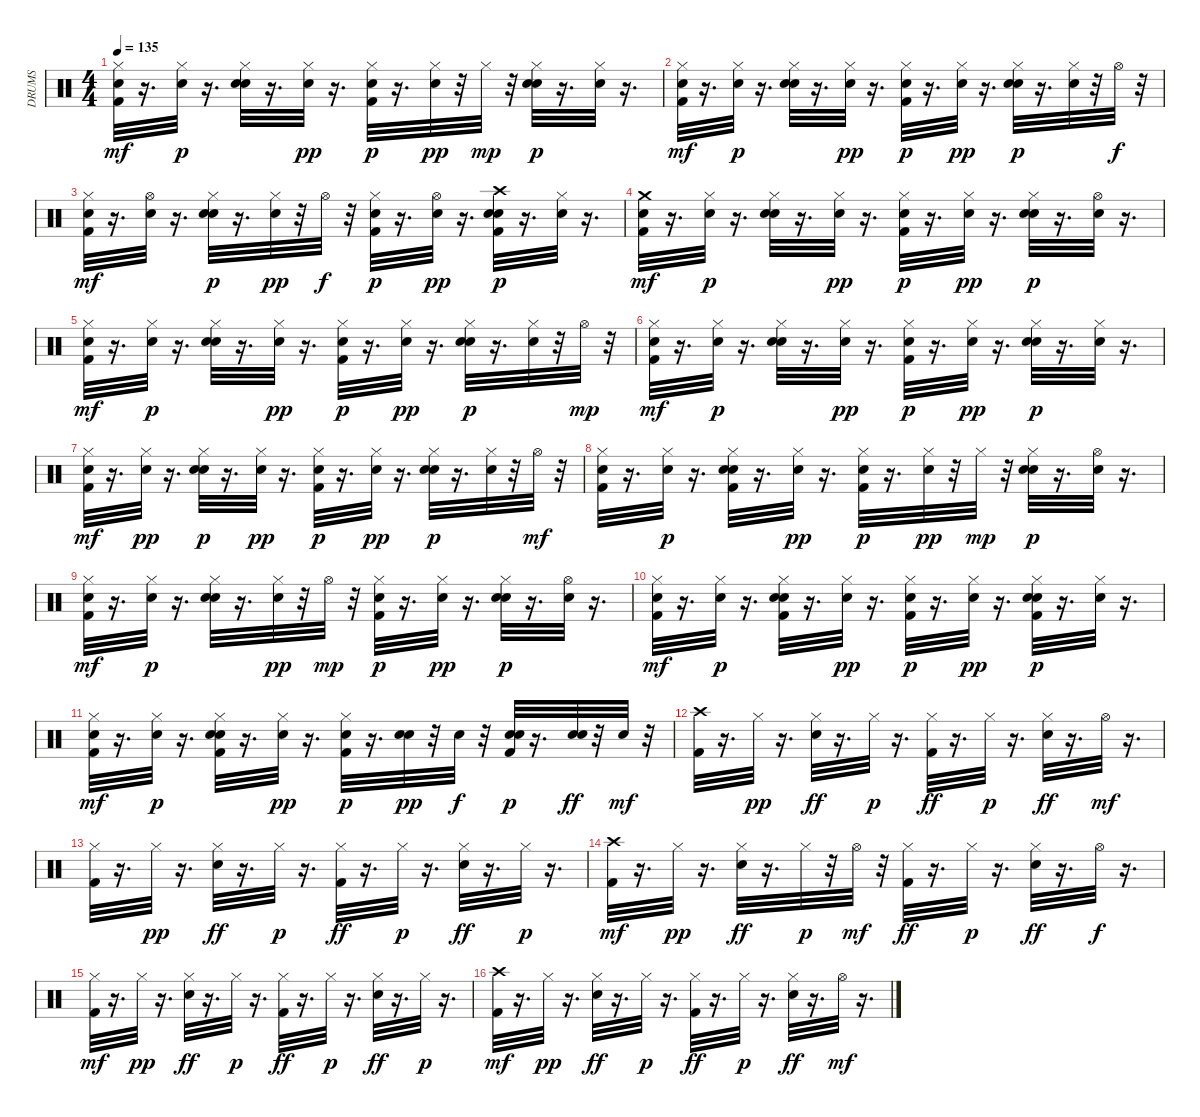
\track ("DRUMS" "DRUMS") {instrument percussion}
\staff {score}
\articulation defaults
\ts (4 4)
\tempo 135
\clef neutral
\ks c
("Kick (hit) 2" "Hand Clap (hit)" "Hi-Hat (closed)").32{dy mf} r.16{d} ("Hi-Hat (closed)" "Hand Clap (hit)").32{dy p} r.16{d} ("Hi-Hat (closed)" "Electric Snare (hit)" "Hand Clap (hit)").32 r.16{d} ("Hi-Hat (closed)" "Hand Clap (hit)").32{dy pp} r.16{d} ("Kick (hit) 2" "Hi-Hat (closed)" "Hand Clap (hit)").32{dy p} r.16{d} ("Hi-Hat (closed)" "Hand Clap (hit)").32{dy pp} r.32 "Hi-Hat (closed)".32{dy mp} r.32 ("Hi-Hat (closed)" "Electric Snare (hit)" "Hand Clap (hit)").32{dy p} r.16{d} ("Hi-Hat (closed)" "Hand Clap (hit)").32 r.16{d} |
("Kick (hit) 2" "Hand Clap (hit)" "Hi-Hat (closed)").32{dy mf} r.16{d} ("Hi-Hat (closed)" "Hand Clap (hit)").32{dy p} r.16{d} ("Hi-Hat (closed)" "Electric Snare (hit)" "Hand Clap (hit)").32 r.16{d} ("Hi-Hat (closed)" "Hand Clap (hit)").32{dy pp} r.16{d} ("Kick (hit) 2" "Hi-Hat (closed)" "Hand Clap (hit)").32{dy p} r.16{d} ("Hi-Hat (closed)" "Hand Clap (hit)").32{dy pp} r.16{d} ("Hi-Hat (closed)" "Electric Snare (hit)" "Hand Clap (hit)").32{dy p} r.16{d} ("Hi-Hat (closed)" "Hand Clap (hit)").32 r.32 "Hi-Hat (open)".32{dy f} r.32 |
("Kick (hit) 2" "Hand Clap (hit)" "Hi-Hat (closed)").32{dy mf} r.16{d} ("Hand Clap (hit)" "Hi-Hat (open)").32 r.16{d} ("Hi-Hat (closed)" "Electric Snare (hit)" "Hand Clap (hit)").32{dy p} r.16{d} ("Hi-Hat (closed)" "Hand Clap (hit)").32{dy pp} r.32 "Hi-Hat (open)".32{dy f} r.32 ("Hi-Hat (closed)" "Kick (hit) 2" "Hand Clap (hit)").32{dy p} r.16{d} ("Hi-Hat (open)" "Hand Clap (hit)").32{dy pp} r.16{d} ("Electric Snare (hit)" "Crash high (hit)" "Kick (hit) 2" "Hand Clap (hit)").32{dy p} r.16{d} ("Hi-Hat (closed)" "Hand Clap (hit)").32 r.16{d} |
("Kick (hit) 2" "Hand Clap (hit)" "Crash medium (hit)").32{dy mf} r.16{d} ("Hi-Hat (closed)" "Hand Clap (hit)").32{dy p} r.16{d} ("Hi-Hat (closed)" "Electric Snare (hit)" "Hand Clap (hit)").32 r.16{d} ("Hi-Hat (closed)" "Hand Clap (hit)").32{dy pp} r.16{d} ("Hi-Hat (closed)" "Kick (hit) 2" "Hand Clap (hit)").32{dy p} r.16{d} ("Hi-Hat (closed)" "Hand Clap (hit)").32{dy pp} r.16{d} ("Electric Snare (hit)" "Hi-Hat (closed)" "Hand Clap (hit)").32{dy p} r.16{d} ("Hi-Hat (open)" "Hand Clap (hit)").32 r.16{d} |
("Kick (hit) 2" "Hand Clap (hit)" "Hi-Hat (closed)").32{dy mf} r.16{d} ("Hi-Hat (closed)" "Hand Clap (hit)").32{dy p} r.16{d} ("Hi-Hat (closed)" "Electric Snare (hit)" "Hand Clap (hit)").32 r.16{d} ("Hi-Hat (closed)" "Hand Clap (hit)").32{dy pp} r.16{d} ("Kick (hit) 2" "Hi-Hat (closed)" "Hand Clap (hit)").32{dy p} r.16{d} ("Hi-Hat (closed)" "Hand Clap (hit)").32{dy pp} r.16{d} ("Hi-Hat (closed)" "Electric Snare (hit)" "Hand Clap (hit)").32{dy p} r.16{d} ("Hi-Hat (closed)" "Hand Clap (hit)").32 r.32 "Hi-Hat (open)".32{dy mp} r.32 |
("Kick (hit) 2" "Hand Clap (hit)" "Hi-Hat (closed)").32{dy mf} r.16{d} ("Hi-Hat (closed)" "Hand Clap (hit)").32{dy p} r.16{d} ("Hi-Hat (closed)" "Electric Snare (hit)" "Hand Clap (hit)").32 r.16{d} ("Hi-Hat (closed)" "Hand Clap (hit)").32{dy pp} r.16{d} ("Hi-Hat (closed)" "Kick (hit) 2" "Hand Clap (hit)").32{dy p} r.16{d} ("Hi-Hat (closed)" "Hand Clap (hit)").32{dy pp} r.16{d} ("Electric Snare (hit)" "Hi-Hat (closed)" "Hand Clap (hit)").32{dy p} r.16{d} ("Hi-Hat (closed)" "Hand Clap (hit)").32 r.16{d} |
("Kick (hit) 2" "Hand Clap (hit)" "Hi-Hat (closed)").32{dy mf} r.16{d} ("Hand Clap (hit)" "Hi-Hat (closed)").32{dy pp} r.16{d} ("Hi-Hat (closed)" "Electric Snare (hit)" "Hand Clap (hit)").32{dy p} r.16{d} ("Hi-Hat (closed)" "Hand Clap (hit)").32{dy pp} r.16{d} ("Kick (hit) 2" "Hi-Hat (closed)" "Hand Clap (hit)").32{dy p} r.16{d} ("Hi-Hat (closed)" "Hand Clap (hit)").32{dy pp} r.16{d} ("Hi-Hat (closed)" "Electric Snare (hit)" "Hand Clap (hit)").32{dy p} r.16{d} ("Hi-Hat (closed)" "Hand Clap (hit)").32 r.32 "Hi-Hat (open)".32{dy mf} r.32 |
("Kick (hit) 2" "Hand Clap (hit)" "Hi-Hat (closed)").32 r.16{d} ("Hi-Hat (closed)" "Hand Clap (hit)").32{dy p} r.16{d} ("Hi-Hat (closed)" "Electric Snare (hit)" "Kick (hit) 2" "Hand Clap (hit)").32 r.16{d} ("Hi-Hat (closed)" "Hand Clap (hit)").32{dy pp} r.16{d} ("Hi-Hat (closed)" "Kick (hit) 2" "Hand Clap (hit)").32{dy p} r.16{d} ("Hi-Hat (closed)" "Hand Clap (hit)").32{dy pp} r.32 "Hi-Hat (closed)".32{dy mp} r.32 ("Electric Snare (hit)" "Hi-Hat (closed)" "Hand Clap (hit)").32{dy p} r.16{d} ("Hi-Hat (open)" "Hand Clap (hit)").32 r.16{d} |
("Kick (hit) 2" "Hand Clap (hit)" "Hi-Hat (closed)").32{dy mf} r.16{d} ("Hi-Hat (closed)" "Hand Clap (hit)").32{dy p} r.16{d} ("Hi-Hat (closed)" "Electric Snare (hit)" "Hand Clap (hit)").32 r.16{d} ("Hi-Hat (closed)" "Hand Clap (hit)").32{dy pp} r.32 "Hi-Hat (open)".32{dy mp} r.32 ("Kick (hit) 2" "Hi-Hat (closed)" "Hand Clap (hit)").32{dy p} r.16{d} ("Hi-Hat (closed)" "Hand Clap (hit)").32{dy pp} r.16{d} ("Hi-Hat (closed)" "Electric Snare (hit)" "Hand Clap (hit)").32{dy p} r.16{d} ("Hi-Hat (open)" "Hand Clap (hit)").32 r.16{d} |
("Kick (hit) 2" "Hand Clap (hit)" "Hi-Hat (closed)").32{dy mf} r.16{d} ("Hi-Hat (closed)" "Hand Clap (hit)").32{dy p} r.16{d} ("Hi-Hat (closed)" "Electric Snare (hit)" "Kick (hit) 2" "Hand Clap (hit)").32 r.16{d} ("Hi-Hat (closed)" "Hand Clap (hit)").32{dy pp} r.16{d} ("Kick (hit) 2" "Hi-Hat (closed)" "Hand Clap (hit)").32{dy p} r.16{d} ("Hi-Hat (closed)" "Hand Clap (hit)").32{dy pp} r.16{d} ("Hi-Hat (closed)" "Electric Snare (hit)" "Kick (hit) 2" "Hand Clap (hit)").32{dy p} r.16{d} ("Hi-Hat (closed)" "Hand Clap (hit)").32 r.16{d} |
("Kick (hit) 2" "Hand Clap (hit)" "Hi-Hat (closed)").32{dy mf} r.16{d} ("Hi-Hat (closed)" "Hand Clap (hit)").32{dy p} r.16{d} ("Hi-Hat (closed)" "Electric Snare (hit)" "Kick (hit) 2" "Hand Clap (hit)").32 r.16{d} ("Hi-Hat (closed)" "Hand Clap (hit)").32{dy pp} r.16{d} ("Kick (hit) 2" "Hi-Hat (closed)" "Hand Clap (hit)").32{dy p} r.16{d} ("Electric Snare (hit)" "Hand Clap (hit)").32{dy pp} r.32 "Electric Snare (hit)".32{dy f} r.32 ("Electric Snare (hit)" "Kick (hit) 2" "Hand Clap (hit)").32{dy p} r.16{d} ("Hand Clap (hit)" "Electric Snare (hit)").32{dy ff} r.32 "Electric Snare (hit)".32{dy mf} r.32 |
("Kick (hit) 2" "Crash high (hit)").32 r.16{d} "Hi-Hat (closed)".32{dy pp} r.16{d} ("Hi-Hat (closed)" "Electric Snare (hit)").32{dy ff} r.16{d} "Hi-Hat (closed)".32{dy p} r.16{d} ("Hi-Hat (closed)" "Kick (hit) 2").32{dy ff} r.16{d} "Hi-Hat (closed)".32{dy p} r.16{d} ("Electric Snare (hit)" "Hi-Hat (closed)").32{dy ff} r.16{d} "Hi-Hat (open)".32{dy mf} r.16{d} |
("Kick (hit) 2" "Hi-Hat (closed)").32 r.16{d} "Hi-Hat (closed)".32{dy pp} r.16{d} ("Hi-Hat (closed)" "Electric Snare (hit)").32{dy ff} r.16{d} "Hi-Hat (closed)".32{dy p} r.16{d} ("Hi-Hat (closed)" "Kick (hit) 2").32{dy ff} r.16{d} "Hi-Hat (closed)".32{dy p} r.16{d} ("Electric Snare (hit)" "Hi-Hat (closed)").32{dy ff} r.16{d} "Hi-Hat (closed)".32{dy p} r.16{d} |
("Kick (hit) 2" "Crash high (hit)").32{dy mf} r.16{d} "Hi-Hat (closed)".32{dy pp} r.16{d} ("Hi-Hat (closed)" "Electric Snare (hit)").32{dy ff} r.16{d} "Hi-Hat (closed)".32{dy p} r.32 "Hi-Hat (open)".32{dy mf} r.32 ("Hi-Hat (closed)" "Kick (hit) 2").32{dy ff} r.16{d} "Hi-Hat (closed)".32{dy p} r.16{d} ("Electric Snare (hit)" "Hi-Hat (closed)").32{dy ff} r.16{d} "Hi-Hat (open)".32{dy f} r.16{d} |
("Kick (hit) 2" "Hi-Hat (closed)").32{dy mf} r.16{d} "Hi-Hat (closed)".32{dy pp} r.16{d} ("Hi-Hat (closed)" "Electric Snare (hit)").32{dy ff} r.16{d} "Hi-Hat (closed)".32{dy p} r.16{d} ("Hi-Hat (closed)" "Kick (hit) 2").32{dy ff} r.16{d} "Hi-Hat (closed)".32{dy p} r.16{d} ("Electric Snare (hit)" "Hi-Hat (closed)").32{dy ff} r.16{d} "Hi-Hat (closed)".32{dy p} r.16{d} |
("Kick (hit) 2" "Crash high (hit)").32{dy mf} r.16{d} "Hi-Hat (closed)".32{dy pp} r.16{d} ("Hi-Hat (closed)" "Electric Snare (hit)").32{dy ff} r.16{d} "Hi-Hat (closed)".32{dy p} r.16{d} ("Hi-Hat (closed)" "Kick (hit) 2").32{dy ff} r.16{d} "Hi-Hat (closed)".32{dy p} r.16{d} ("Electric Snare (hit)" "Hi-Hat (closed)").32{dy ff} r.16{d} "Hi-Hat (open)".32{dy mf} r.16{d}
